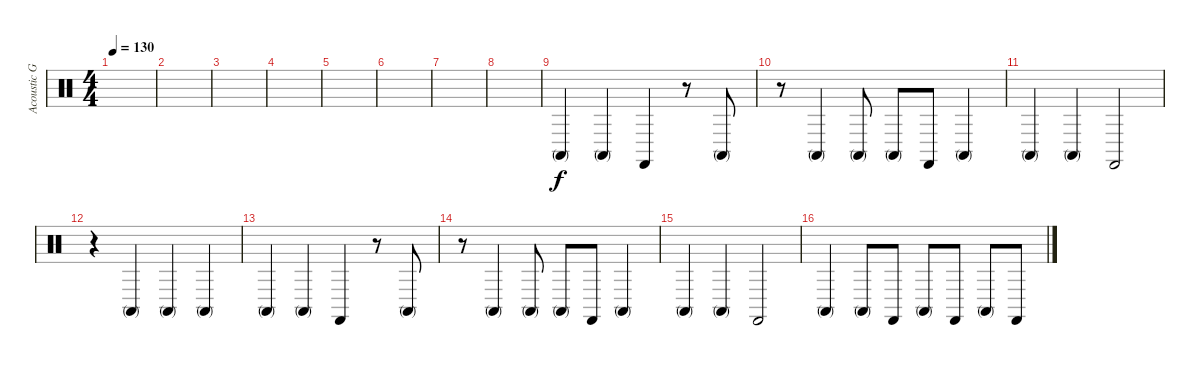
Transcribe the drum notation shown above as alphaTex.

\track ("Acoustic Guitar used for rythm" "Acoustic G") {instrument percussion}
\staff {score}
\articulation defaults
\ts (4 4)
\tempo 130
\clef neutral
\ks c
|
|
|
|
|
|
|
|
"Conga high (mute)".4 "Conga high (mute)".4 "Castanets (hit)".4 r.8 "Conga high (mute)".8 |
r.8 "Conga high (mute)".4 "Conga high (mute)".8 "Conga high (mute)".8 "Castanets (hit)".8 "Conga high (mute)".4 |
"Conga high (mute)".4 "Conga high (mute)".4 "Castanets (hit)".2 |
r.4 "Conga high (mute)".4 "Conga high (mute)".4 "Conga high (mute)".4 |
"Conga high (mute)".4 "Conga high (mute)".4 "Castanets (hit)".4 r.8 "Conga high (mute)".8 |
r.8 "Conga high (mute)".4 "Conga high (mute)".8 "Conga high (mute)".8 "Castanets (hit)".8 "Conga high (mute)".4 |
"Conga high (mute)".4 "Conga high (mute)".4 "Castanets (hit)".2 |
"Conga high (mute)".4 "Conga high (mute)".8 "Castanets (hit)".8 "Conga high (mute)".8 "Castanets (hit)".8 "Conga high (mute)".8 "Castanets (hit)".8
